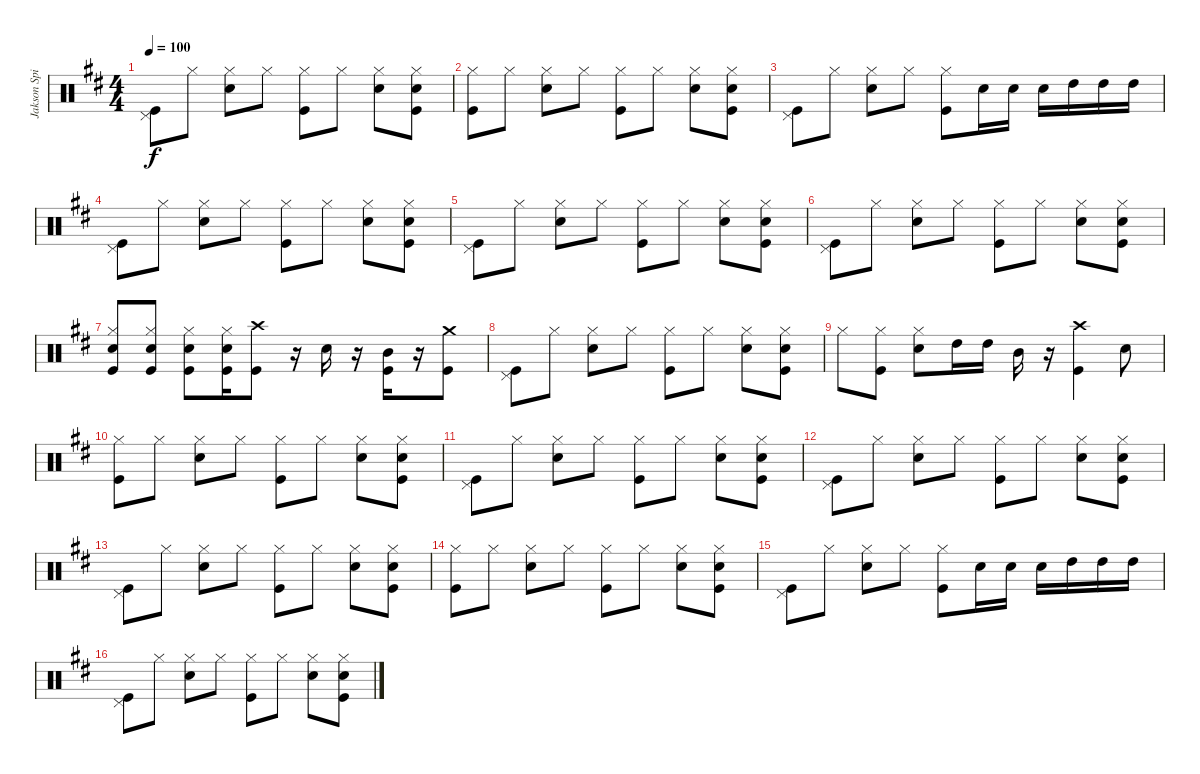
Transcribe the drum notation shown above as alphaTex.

\track ("Jakson Spires Drums" "Jakson Spi") {instrument percussion}
\staff {score}
\articulation defaults
\ts (4 4)
\tempo 100
\clef neutral
\ks d
("Pedal Hi-Hat (hit)" "Kick (hit)").8{dy f} "Hi-Hat (closed)".8 ("Hi-Hat (closed)" "Snare (hit) 2").8 "Hi-Hat (closed)".8 ("Hi-Hat (closed)" "Kick (hit)").8 "Hi-Hat (closed)".8 ("Hi-Hat (closed)" "Snare (hit) 2").8 ("Hi-Hat (closed)" "Snare (hit) 2" "Kick (hit)").8 |
("Hi-Hat (closed)" "Kick (hit)").8 "Hi-Hat (closed)".8 ("Hi-Hat (closed)" "Snare (hit) 2").8 "Hi-Hat (closed)".8 ("Hi-Hat (closed)" "Kick (hit)").8 "Hi-Hat (closed)".8 ("Hi-Hat (closed)" "Snare (hit) 2").8 ("Hi-Hat (closed)" "Snare (hit) 2" "Kick (hit)").8 |
("Pedal Hi-Hat (hit)" "Kick (hit)").8 "Hi-Hat (closed)".8 ("Hi-Hat (closed)" "Snare (hit) 2").8 "Hi-Hat (closed)".8 ("Hi-Hat (closed)" "Kick (hit)").8 "Snare (hit) 2".16 "Snare (hit) 2".16 "Snare (hit) 2".16 "High Tom (hit)".16 "High Tom (hit)".16 "High Tom (hit)".16 |
("Pedal Hi-Hat (hit)" "Kick (hit)").8 "Hi-Hat (closed)".8 ("Hi-Hat (closed)" "Snare (hit) 2").8 "Hi-Hat (closed)".8 ("Hi-Hat (closed)" "Kick (hit)").8 "Hi-Hat (closed)".8 ("Hi-Hat (closed)" "Snare (hit) 2").8 ("Hi-Hat (closed)" "Snare (hit) 2" "Kick (hit)").8 |
("Pedal Hi-Hat (hit)" "Kick (hit)").8 "Hi-Hat (closed)".8 ("Hi-Hat (closed)" "Snare (hit) 2").8 "Hi-Hat (closed)".8 ("Hi-Hat (closed)" "Kick (hit)").8 "Hi-Hat (closed)".8 ("Hi-Hat (closed)" "Snare (hit) 2").8 ("Hi-Hat (closed)" "Snare (hit) 2" "Kick (hit)").8 |
("Pedal Hi-Hat (hit)" "Kick (hit)").8 "Hi-Hat (closed)".8 ("Hi-Hat (closed)" "Snare (hit) 2").8 "Hi-Hat (closed)".8 ("Hi-Hat (closed)" "Kick (hit)").8 "Hi-Hat (closed)".8 ("Hi-Hat (closed)" "Snare (hit) 2").8 ("Hi-Hat (closed)" "Snare (hit) 2" "Kick (hit)").8 |
("Hi-Hat (closed)" "Snare (hit) 2" "Kick (hit)").8 ("Hi-Hat (closed)" "Snare (hit) 2" "Kick (hit)").8 ("Hi-Hat (closed)" "Snare (hit) 2" "Kick (hit)").8 ("Hi-Hat (closed)" "Snare (hit) 2" "Kick (hit)").16 ("Crash high (hit)" "Kick (hit)").8 r.16 "Snare (hit) 2".16 r.16 ("Mid Tom (hit)" "Kick (hit)").16 r.16 ("Crash medium (hit)" "Kick (hit)").8 |
("Pedal Hi-Hat (hit)" "Kick (hit)").8 "Hi-Hat (closed)".8 ("Hi-Hat (closed)" "Snare (hit) 2").8 "Hi-Hat (closed)".8 ("Hi-Hat (closed)" "Kick (hit)").8 "Hi-Hat (closed)".8 ("Hi-Hat (closed)" "Snare (hit) 2").8 ("Hi-Hat (closed)" "Snare (hit) 2" "Kick (hit)").8 |
"Hi-Hat (closed)".8 ("Hi-Hat (closed)" "Kick (hit)").8 ("Hi-Hat (closed)" "Snare (hit) 2").8 "High Tom (hit)".16 "High Tom (hit)".16 "Mid Tom (hit)".16 r.16 ("Crash high (hit)" "Kick (hit)").4 "Snare (hit) 2".8 |
("Hi-Hat (closed)" "Kick (hit)").8 "Hi-Hat (closed)".8 ("Hi-Hat (closed)" "Snare (hit) 2").8 "Hi-Hat (closed)".8 ("Hi-Hat (closed)" "Kick (hit)").8 "Hi-Hat (closed)".8 ("Hi-Hat (closed)" "Snare (hit) 2").8 ("Hi-Hat (closed)" "Snare (hit) 2" "Kick (hit)").8 |
("Pedal Hi-Hat (hit)" "Kick (hit)").8 "Hi-Hat (closed)".8 ("Hi-Hat (closed)" "Snare (hit) 2").8 "Hi-Hat (closed)".8 ("Hi-Hat (closed)" "Kick (hit)").8 "Hi-Hat (closed)".8 ("Hi-Hat (closed)" "Snare (hit) 2").8 ("Hi-Hat (closed)" "Snare (hit) 2" "Kick (hit)").8 |
("Pedal Hi-Hat (hit)" "Kick (hit)").8 "Hi-Hat (closed)".8 ("Hi-Hat (closed)" "Snare (hit) 2").8 "Hi-Hat (closed)".8 ("Hi-Hat (closed)" "Kick (hit)").8 "Hi-Hat (closed)".8 ("Hi-Hat (closed)" "Snare (hit) 2").8 ("Hi-Hat (closed)" "Snare (hit) 2" "Kick (hit)").8 |
("Pedal Hi-Hat (hit)" "Kick (hit)").8 "Hi-Hat (closed)".8 ("Hi-Hat (closed)" "Snare (hit) 2").8 "Hi-Hat (closed)".8 ("Hi-Hat (closed)" "Kick (hit)").8 "Hi-Hat (closed)".8 ("Hi-Hat (closed)" "Snare (hit) 2").8 ("Hi-Hat (closed)" "Snare (hit) 2" "Kick (hit)").8 |
("Hi-Hat (closed)" "Kick (hit)").8 "Hi-Hat (closed)".8 ("Hi-Hat (closed)" "Snare (hit) 2").8 "Hi-Hat (closed)".8 ("Hi-Hat (closed)" "Kick (hit)").8 "Hi-Hat (closed)".8 ("Hi-Hat (closed)" "Snare (hit) 2").8 ("Hi-Hat (closed)" "Snare (hit) 2" "Kick (hit)").8 |
("Pedal Hi-Hat (hit)" "Kick (hit)").8 "Hi-Hat (closed)".8 ("Hi-Hat (closed)" "Snare (hit) 2").8 "Hi-Hat (closed)".8 ("Hi-Hat (closed)" "Kick (hit)").8 "Snare (hit) 2".16 "Snare (hit) 2".16 "Snare (hit) 2".16 "High Tom (hit)".16 "High Tom (hit)".16 "High Tom (hit)".16 |
("Pedal Hi-Hat (hit)" "Kick (hit)").8 "Hi-Hat (closed)".8 ("Hi-Hat (closed)" "Snare (hit) 2").8 "Hi-Hat (closed)".8 ("Hi-Hat (closed)" "Kick (hit)").8 "Hi-Hat (closed)".8 ("Hi-Hat (closed)" "Snare (hit) 2").8 ("Hi-Hat (closed)" "Snare (hit) 2" "Kick (hit)").8
